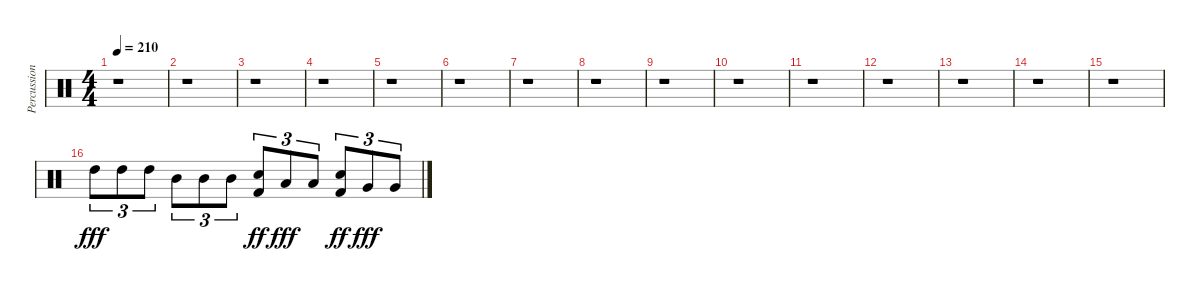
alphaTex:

\track ("Percussion" "Percussion") {instrument percussion}
\staff {score}
\articulation defaults
\ts (4 4)
\tempo 210
\clef neutral
\ks c
r.1{dy fff} |
r.1 |
r.1 |
r.1 |
r.1 |
r.1 |
r.1 |
r.1 |
r.1 |
r.1 |
r.1 |
r.1 |
r.1 |
r.1 |
r.1 |
"High Tom (hit)".8{tu (3 2)} "High Tom (hit)".8{tu (3 2)} "High Tom (hit)".8{tu (3 2)} "Mid Tom (hit)".8{tu (3 2)} "Mid Tom (hit)".8{tu (3 2)} "Mid Tom (hit)".8{tu (3 2)} ("Snare (hit) 2" "Kick (hit) 2").8{tu (3 2) dy ff} "Low Tom (hit)".8{tu (3 2) dy fff} "Low Tom (hit)".8{tu (3 2)} ("Snare (hit) 2" "Kick (hit) 2").8{tu (3 2) dy ff} "Very Low Tom (hit)".8{tu (3 2) dy fff} "Very Low Tom (hit)".8{tu (3 2)}
